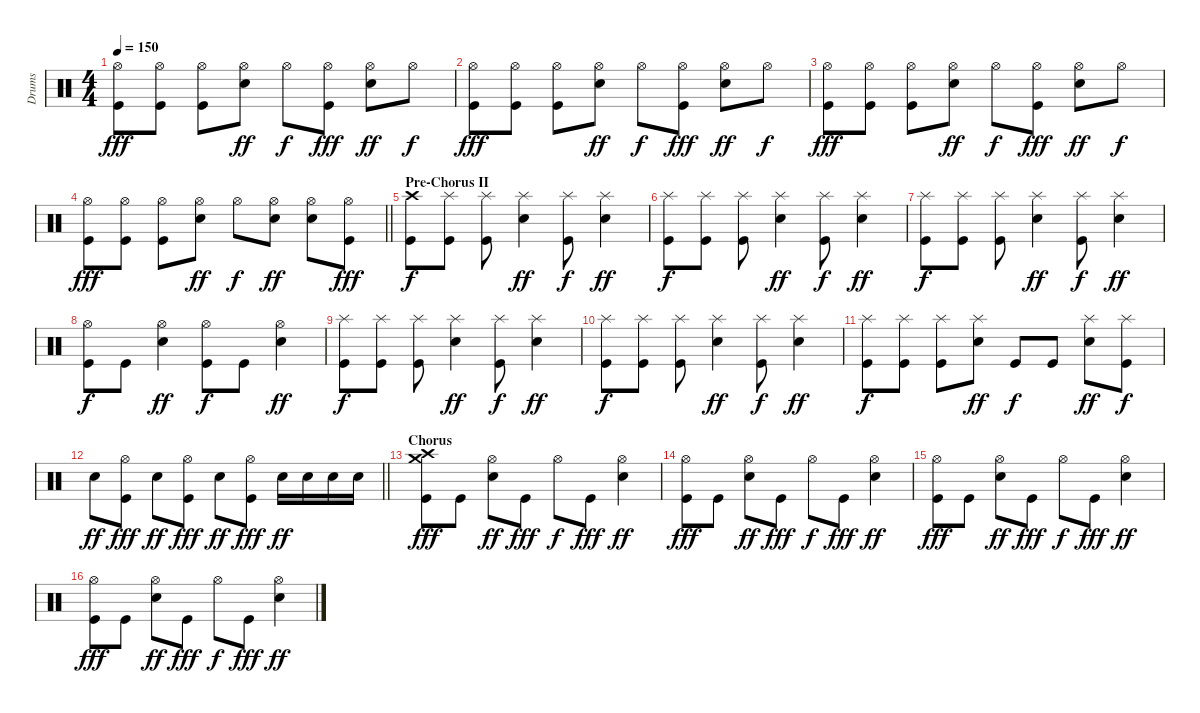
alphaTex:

\track ("Drums" "Drums") {instrument percussion}
\staff {score}
\articulation defaults
\ts (4 4)
\tempo 150
\clef neutral
\ks c
("Hi-Hat (open)" "Kick (hit)").8{dy fff} ("Hi-Hat (open)" "Kick (hit)").8 ("Hi-Hat (open)" "Kick (hit)").8 ("Hi-Hat (open)" "Snare (hit) 2").8{dy ff} "Hi-Hat (open)".8{dy f} ("Hi-Hat (open)" "Kick (hit)").8{dy fff} ("Hi-Hat (open)" "Snare (hit) 2").8{dy ff} "Hi-Hat (open)".8{dy f} |
("Hi-Hat (open)" "Kick (hit)").8{dy fff} ("Hi-Hat (open)" "Kick (hit)").8 ("Hi-Hat (open)" "Kick (hit)").8 ("Hi-Hat (open)" "Snare (hit) 2").8{dy ff} "Hi-Hat (open)".8{dy f} ("Hi-Hat (open)" "Kick (hit)").8{dy fff} ("Hi-Hat (open)" "Snare (hit) 2").8{dy ff} "Hi-Hat (open)".8{dy f} |
("Hi-Hat (open)" "Kick (hit)").8{dy fff} ("Hi-Hat (open)" "Kick (hit)").8 ("Hi-Hat (open)" "Kick (hit)").8 ("Hi-Hat (open)" "Snare (hit) 2").8{dy ff} "Hi-Hat (open)".8{dy f} ("Hi-Hat (open)" "Kick (hit)").8{dy fff} ("Hi-Hat (open)" "Snare (hit) 2").8{dy ff} "Hi-Hat (open)".8{dy f} |
\barLineRight lightlight
("Hi-Hat (open)" "Kick (hit)").8{dy fff} ("Hi-Hat (open)" "Kick (hit)").8 ("Hi-Hat (open)" "Kick (hit)").8 ("Hi-Hat (open)" "Snare (hit) 2").8{dy ff} "Hi-Hat (open)".8{dy f} ("Hi-Hat (open)" "Snare (hit) 2").8{dy ff} ("Hi-Hat (open)" "Snare (hit) 2").8 ("Hi-Hat (open)" "Kick (hit)").8{dy fff} |
\section ("" "Pre-Chorus II")
("Crash high (hit)" "Kick (hit)").8{dy f} ("Splash (hit)" "Kick (hit)").8 ("Splash (hit)" "Kick (hit)").8 ("Splash (hit)" "Snare (hit) 2").4{dy ff} ("Splash (hit)" "Kick (hit)").8{dy f} ("Splash (hit)" "Snare (hit) 2").4{dy ff} |
("Splash (hit)" "Kick (hit)").8{dy f} ("Splash (hit)" "Kick (hit)").8 ("Splash (hit)" "Kick (hit)").8 ("Splash (hit)" "Snare (hit) 2").4{dy ff} ("Splash (hit)" "Kick (hit)").8{dy f} ("Splash (hit)" "Snare (hit) 2").4{dy ff} |
("Splash (hit)" "Kick (hit)").8{dy f} ("Splash (hit)" "Kick (hit)").8 ("Splash (hit)" "Kick (hit)").8 ("Splash (hit)" "Snare (hit) 2").4{dy ff} ("Splash (hit)" "Kick (hit)").8{dy f} ("Splash (hit)" "Snare (hit) 2").4{dy ff} |
("Hi-Hat (open)" "Kick (hit)").8{dy f} "Kick (hit)".8 ("Hi-Hat (open)" "Snare (hit) 2").4{dy ff} ("Hi-Hat (open)" "Kick (hit)").8{dy f} "Kick (hit)".8 ("Hi-Hat (open)" "Snare (hit) 2").4{dy ff} |
("Splash (hit)" "Kick (hit)").8{dy f} ("Splash (hit)" "Kick (hit)").8 ("Splash (hit)" "Kick (hit)").8 ("Splash (hit)" "Snare (hit) 2").4{dy ff} ("Splash (hit)" "Kick (hit)").8{dy f} ("Splash (hit)" "Snare (hit) 2").4{dy ff} |
("Splash (hit)" "Kick (hit)").8{dy f} ("Splash (hit)" "Kick (hit)").8 ("Splash (hit)" "Kick (hit)").8 ("Splash (hit)" "Snare (hit) 2").4{dy ff} ("Splash (hit)" "Kick (hit)").8{dy f} ("Splash (hit)" "Snare (hit) 2").4{dy ff} |
("Splash (hit)" "Kick (hit)").8{dy f} ("Splash (hit)" "Kick (hit)").8 ("Splash (hit)" "Kick (hit)").8 ("Splash (hit)" "Snare (hit) 2").8{dy ff} "Kick (hit)".8{dy f} "Kick (hit)".8 ("Splash (hit)" "Snare (hit) 2").8{dy ff} ("Splash (hit)" "Kick (hit)").8{dy f} |
\barLineRight lightlight "Snare (hit) 2".8{dy ff}
("Hi-Hat (open)" "Kick (hit)").8{dy fff} "Snare (hit) 2".8{dy ff} ("Hi-Hat (open)" "Kick (hit)").8{dy fff} "Snare (hit) 2".8{dy ff} ("Hi-Hat (open)" "Kick (hit)").8{dy fff} "Snare (hit) 2".16{dy ff} "Snare (hit) 2".16 "Snare (hit) 2".16 "Snare (hit) 2".16 |
\section ("" "Chorus")
("Crash high (hit)" "Crash medium (hit)" "Kick (hit)").8{dy fff} "Kick (hit)".8 ("Hi-Hat (open)" "Snare (hit) 2").8{dy ff} "Kick (hit)".8{dy fff} "Hi-Hat (open)".8{dy f} "Kick (hit)".8{dy fff} ("Hi-Hat (open)" "Snare (hit) 2").4{dy ff} |
("Hi-Hat (open)" "Kick (hit)").8{dy fff} "Kick (hit)".8 ("Hi-Hat (open)" "Snare (hit) 2").8{dy ff} "Kick (hit)".8{dy fff} "Hi-Hat (open)".8{dy f} "Kick (hit)".8{dy fff} ("Hi-Hat (open)" "Snare (hit) 2").4{dy ff} |
("Hi-Hat (open)" "Kick (hit)").8{dy fff} "Kick (hit)".8 ("Hi-Hat (open)" "Snare (hit) 2").8{dy ff} "Kick (hit)".8{dy fff} "Hi-Hat (open)".8{dy f} "Kick (hit)".8{dy fff} ("Hi-Hat (open)" "Snare (hit) 2").4{dy ff} |
("Hi-Hat (open)" "Kick (hit)").8{dy fff} "Kick (hit)".8 ("Hi-Hat (open)" "Snare (hit) 2").8{dy ff} "Kick (hit)".8{dy fff} "Hi-Hat (open)".8{dy f} "Kick (hit)".8{dy fff} ("Hi-Hat (open)" "Snare (hit) 2").4{dy ff}
